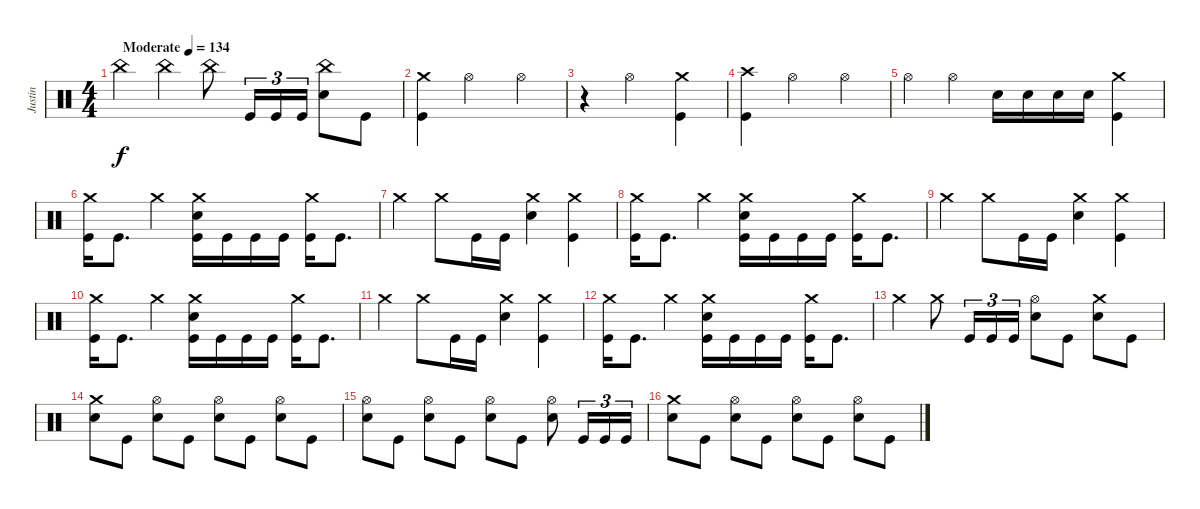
\track ("Justin" "Justin") {instrument percussion}
\staff {score}
\articulation defaults
\ts (4 4)
\tempo (134 "Moderate")
\clef neutral
\ks c "China (hit)".4{dy f} "China (hit)".4 "China (hit)".8 "Kick (hit)".16{tu (3 2)} "Kick (hit)".16{tu (3 2)} "Kick (hit)".16{tu (3 2)}
("China (hit)" "Electric Snare (hit)").8 "Kick (hit)".8 |
("Crash medium (hit)" "Kick (hit)").4 "Hi-Hat (open)".2 "Hi-Hat (open)".4 |
r.4 "Hi-Hat (open)".2 ("Crash medium (hit)" "Kick (hit)").4 |
("Crash high (hit)" "Kick (hit)").4 "Hi-Hat (open)".2 "Hi-Hat (open)".4 |
"Hi-Hat (open)".4 "Hi-Hat (open)".4 "Electric Snare (hit)".16 "Electric Snare (hit)".16 "Electric Snare (hit)".16 "Electric Snare (hit)".16 ("Crash medium (hit)" "Kick (hit)").4 |
("Crash medium (hit)" "Kick (hit)").16 "Kick (hit)".8{d} "Crash medium (hit)".4 ("Crash medium (hit)" "Electric Snare (hit)" "Kick (hit)").16 "Kick (hit)".16 "Kick (hit)".16 "Kick (hit)".16 ("Crash medium (hit)" "Kick (hit)").16 "Kick (hit)".8{d} |
"Crash medium (hit)".4 "Crash medium (hit)".8 "Kick (hit)".16 "Kick (hit)".16 ("Crash medium (hit)" "Electric Snare (hit)").4 ("Crash medium (hit)" "Kick (hit)").4 |
("Crash medium (hit)" "Kick (hit)").16 "Kick (hit)".8{d} "Crash medium (hit)".4 ("Crash medium (hit)" "Electric Snare (hit)" "Kick (hit)").16 "Kick (hit)".16 "Kick (hit)".16 "Kick (hit)".16 ("Crash medium (hit)" "Kick (hit)").16 "Kick (hit)".8{d} |
"Crash medium (hit)".4 "Crash medium (hit)".8 "Kick (hit)".16 "Kick (hit)".16 ("Crash medium (hit)" "Electric Snare (hit)").4 ("Crash medium (hit)" "Kick (hit)").4 |
("Crash medium (hit)" "Kick (hit)").16 "Kick (hit)".8{d} "Crash medium (hit)".4 ("Crash medium (hit)" "Electric Snare (hit)" "Kick (hit)").16 "Kick (hit)".16 "Kick (hit)".16 "Kick (hit)".16 ("Crash medium (hit)" "Kick (hit)").16 "Kick (hit)".8{d} |
"Crash medium (hit)".4 "Crash medium (hit)".8 "Kick (hit)".16 "Kick (hit)".16 ("Crash medium (hit)" "Electric Snare (hit)").4 ("Crash medium (hit)" "Kick (hit)").4 |
("Crash medium (hit)" "Kick (hit)").16 "Kick (hit)".8{d} "Crash medium (hit)".4 ("Crash medium (hit)" "Electric Snare (hit)" "Kick (hit)").16 "Kick (hit)".16 "Kick (hit)".16 "Kick (hit)".16 ("Crash medium (hit)" "Kick (hit)").16 "Kick (hit)".8{d} |
"Crash medium (hit)".4 "Crash medium (hit)".8 "Kick (hit)".16{tu (3 2)} "Kick (hit)".16{tu (3 2)} "Kick (hit)".16{tu (3 2)} ("Hi-Hat (open)" "Electric Snare (hit)").8 "Kick (hit)".8 ("Crash medium (hit)" "Electric Snare (hit)").8 "Kick (hit)".8 |
("Crash medium (hit)" "Electric Snare (hit)").8 "Kick (hit)".8 ("Hi-Hat (open)" "Electric Snare (hit)").8 "Kick (hit)".8 ("Hi-Hat (open)" "Electric Snare (hit)").8 "Kick (hit)".8 ("Hi-Hat (open)" "Electric Snare (hit)").8 "Kick (hit)".8 |
("Hi-Hat (open)" "Electric Snare (hit)").8 "Kick (hit)".8 ("Hi-Hat (open)" "Electric Snare (hit)").8 "Kick (hit)".8 ("Hi-Hat (open)" "Electric Snare (hit)").8 "Kick (hit)".8 ("Hi-Hat (open)" "Electric Snare (hit)").8 "Kick (hit)".16{tu (3 2)} "Kick (hit)".16{tu (3 2)} "Kick (hit)".16{tu (3 2)} |
("Crash medium (hit)" "Electric Snare (hit)").8 "Kick (hit)".8 ("Hi-Hat (open)" "Electric Snare (hit)").8 "Kick (hit)".8 ("Hi-Hat (open)" "Electric Snare (hit)").8 "Kick (hit)".8 ("Hi-Hat (open)" "Electric Snare (hit)").8 "Kick (hit)".8
